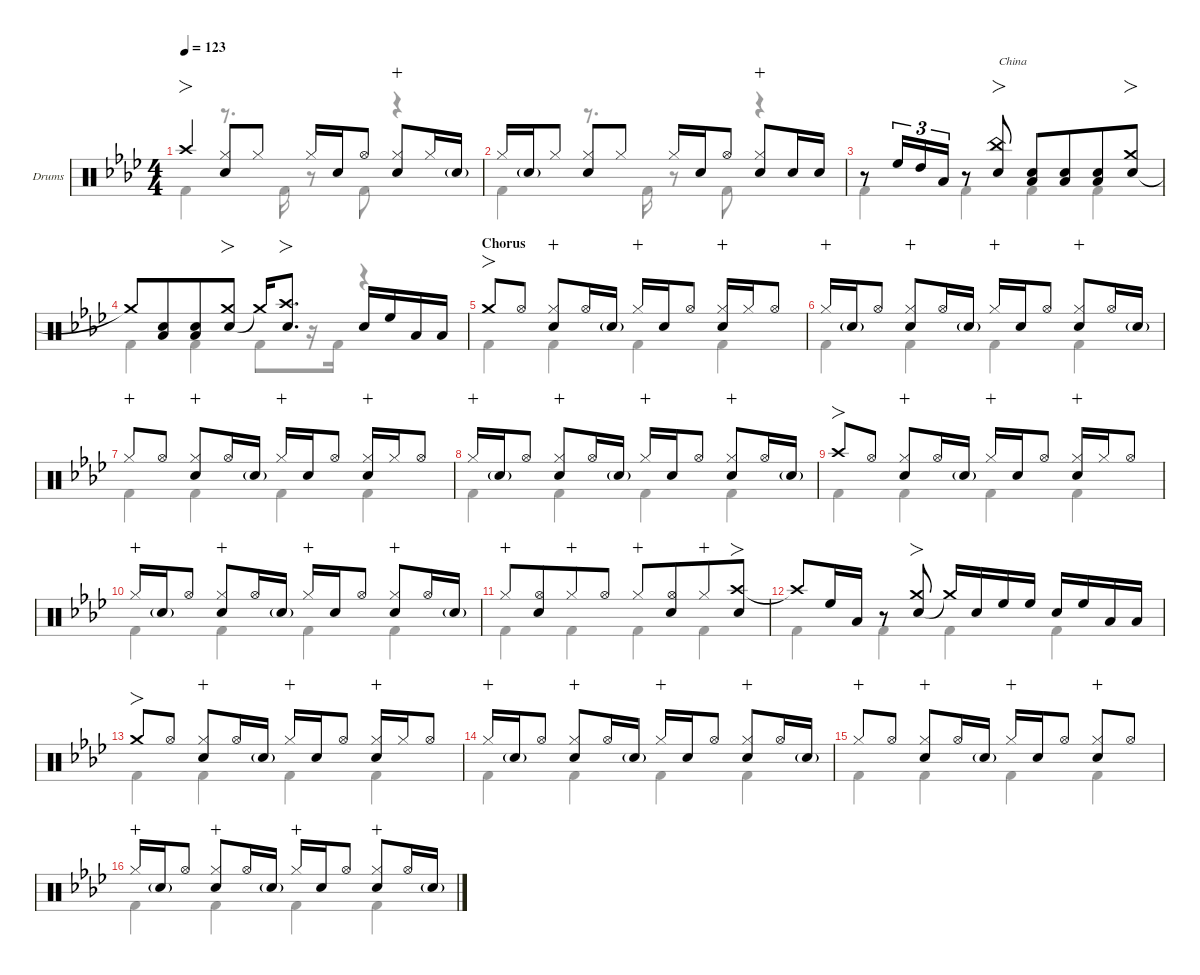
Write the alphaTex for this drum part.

\defaultSystemsLayout 4
\hideDynamics
\bracketExtendMode nobrackets
\firstSystemTrackNameOrientation horizontal
\track ("Drums" "Drums") {defaultSystemsLayout 4 instrument percussion}
\staff {score}
\articulation defaults
\voice
\ts (4 4)
\tempo 123
\clef neutral
\scale
0.265513
\ks ab "Crash high (hit)"{acc forcenatural}.4{fo dy f beam Up}
("Hi-Hat (closed)"{acc forcenatural} "Snare (hit) 2"{acc forcenatural}).8{beam Up} "Hi-Hat (closed)"{acc forcenatural}.8{dy mf beam Up} "Hi-Hat (closed)"{acc forcenatural}.16{dy f beam Up} "Snare (hit) 2"{acc forcenatural}.16{dy mf beam Up} "Hi-Hat (open)"{acc forcenatural}.8{dy f beam Up} ("Hi-Hat (closed)"{acc forcenatural} "Snare (hit) 2"{acc forcenatural}).8{wahc beam Up} "Hi-Hat (closed)"{acc forcenatural}.16{dy mf beam Up} "Snare (hit) 2"{g acc forcenatural}.16{dy mp beam Up} |
\scale
0.245566 "Hi-Hat (closed)"{acc forcenatural}.16{dy f beam Up} "Snare (hit) 2"{g acc forcenatural}.16{dy mp beam Up} "Hi-Hat (closed)"{acc forcenatural}.8{dy mf beam Up} ("Hi-Hat (closed)"{acc forcenatural} "Snare (hit) 2"{acc forcenatural}).8{dy f beam Up} "Hi-Hat (closed)"{acc forcenatural}.8{dy mf beam Up} "Hi-Hat (closed)"{acc forcenatural}.16{dy f beam Up} "Snare (hit) 2"{acc forcenatural}.16{dy mf beam Up} "Hi-Hat (open)"{acc forcenatural}.8{dy f beam Up} ("Hi-Hat (closed)"{acc forcenatural} "Snare (hit) 2"{acc forcenatural}).8{wahc beam Up} "Snare (hit) 2"{acc forcenatural}.16{dy mf beam Up} "Snare (hit) 2"{acc forcenatural}.16{beam Up} |
\scale
0.24446 r.8{beam Up} "High Floor Tom (hit)"{acc forcenatural}.16{tu (3 2) dy f beam Up} "High Tom (hit)"{acc forcenatural}.16{tu (3 2) beam Up} "Low Tom (hit)"{acc forcenatural}.16{tu (3 2) beam Up} r.8{beam Up} ("Snare (hit) 2"{acc forcenatural} "China (hit)"{acc forcenatural}).8{fo txt "China" beam Up} ("Snare (hit) 2"{acc forcenatural} "Low Tom (hit)"{acc forcenatural}).8{dy mp beam Up beam merge} ("Snare (hit) 2"{acc forcenatural} "Low Tom (hit)"{acc forcenatural}).8{beam Up beam merge} ("Snare (hit) 2"{acc forcenatural} "Low Tom (hit)"{acc forcenatural}).8{beam Up} ("Snare (hit) 2"{acc forcenatural} "Crash medium (hit)"{acc forcenatural}).8{fo dy f beam Up} |
\scale
0.244461 "Crash medium (hit)"{t acc forcenatural}.8{beam Up beam merge} ("Snare (hit) 2"{acc forcenatural} "Low Tom (hit)"{acc forcenatural}).8{beam Up beam merge} ("Snare (hit) 2"{acc forcenatural} "Low Tom (hit)"{acc forcenatural}).8{beam Up beam merge} ("Snare (hit) 2"{acc forcenatural} "Crash medium (hit)"{acc forcenatural}).8{fo beam Up} "Crash medium (hit)"{t acc forcenatural}.16{beam Up} ("Snare (hit) 2"{acc forcenatural} "Crash high (hit)"{acc forcenatural}).8{fo d beam Up} "Snare (hit) 2"{acc forcenatural}.16{beam Up} "High Floor Tom (hit)"{acc forcenatural}.16{beam Up} "Low Tom (hit)"{acc forcenatural}.16{beam Up} "Low Tom (hit)"{acc forcenatural}.16{beam Up} |
\section ("" "Chorus")
\scale
0.265513 "Crash medium (hit)"{acc forcenatural}.8{fo beam Up} "Hi-Hat (open)"{acc forcenatural}.8{beam Up} ("Snare (hit) 2"{acc forcenatural} "Hi-Hat (closed)"{acc forcenatural}).8{wahc beam Up beam merge} "Hi-Hat (open)"{acc forcenatural}.16{beam Up} "Snare (hit) 2"{g acc forcenatural}.16{dy mf beam Up} "Hi-Hat (closed)"{acc forcenatural}.16{dy mp wahc beam Up} "Snare (hit) 2"{acc forcenatural}.16{dy f beam Up} "Hi-Hat (open)"{acc forcenatural}.8{beam Up} ("Snare (hit) 2"{acc forcenatural} "Hi-Hat (closed)"{acc forcenatural}).16{wahc beam Up} "Hi-Hat (closed)"{acc forcenatural}.16{beam Up} "Hi-Hat (open)"{acc forcenatural}.8{beam Up} |
\scale
0.245566 "Hi-Hat (closed)"{acc forcenatural}.16{dy mp wahc beam Up} "Snare (hit) 2"{g acc forcenatural}.16{dy mf beam Up} "Hi-Hat (open)"{acc forcenatural}.8{dy f beam Up} ("Snare (hit) 2"{acc forcenatural} "Hi-Hat (closed)"{acc forcenatural}).8{wahc beam Up beam merge} "Hi-Hat (open)"{acc forcenatural}.16{beam Up} "Snare (hit) 2"{g acc forcenatural}.16{dy mf beam Up} "Hi-Hat (closed)"{acc forcenatural}.16{dy mp wahc beam Up} "Snare (hit) 2"{acc forcenatural}.16{dy f beam Up} "Hi-Hat (open)"{acc forcenatural}.8{beam Up} ("Snare (hit) 2"{acc forcenatural} "Hi-Hat (closed)"{acc forcenatural}).8{wahc beam Up beam merge} "Hi-Hat (open)"{acc forcenatural}.16{beam Up} "Snare (hit) 2"{g acc forcenatural}.16{dy mf beam Up} |
\scale
0.24446 "Hi-Hat (closed)"{acc forcenatural}.8{dy mp wahc beam Up beam merge} "Hi-Hat (open)"{acc forcenatural}.8{dy f beam Up beam split} ("Snare (hit) 2"{acc forcenatural} "Hi-Hat (closed)"{acc forcenatural}).8{wahc beam Up beam merge} "Hi-Hat (open)"{acc forcenatural}.16{beam Up} "Snare (hit) 2"{g acc forcenatural}.16{dy mf beam Up} "Hi-Hat (closed)"{acc forcenatural}.16{dy mp wahc beam Up} "Snare (hit) 2"{acc forcenatural}.16{dy f beam Up} "Hi-Hat (open)"{acc forcenatural}.8{beam Up} ("Snare (hit) 2"{acc forcenatural} "Hi-Hat (closed)"{acc forcenatural}).16{wahc beam Up} "Hi-Hat (closed)"{acc forcenatural}.16{beam Up} "Hi-Hat (open)"{acc forcenatural}.8{beam Up} |
\scale
0.244461 "Hi-Hat (closed)"{acc forcenatural}.16{dy mp wahc beam Up} "Snare (hit) 2"{g acc forcenatural}.16{dy mf beam Up} "Hi-Hat (open)"{acc forcenatural}.8{dy f beam Up} ("Snare (hit) 2"{acc forcenatural} "Hi-Hat (closed)"{acc forcenatural}).8{wahc beam Up beam merge} "Hi-Hat (open)"{acc forcenatural}.16{beam Up} "Snare (hit) 2"{g acc forcenatural}.16{dy mf beam Up} "Hi-Hat (closed)"{acc forcenatural}.16{dy mp wahc beam Up} "Snare (hit) 2"{acc forcenatural}.16{dy f beam Up} "Hi-Hat (open)"{acc forcenatural}.8{beam Up} ("Snare (hit) 2"{acc forcenatural} "Hi-Hat (closed)"{acc forcenatural}).8{wahc beam Up beam merge} "Hi-Hat (open)"{acc forcenatural}.16{beam Up} "Snare (hit) 2"{g acc forcenatural}.16{dy mf beam Up} |
\scale
0.265513 "Crash high (hit)"{acc forcenatural}.8{fo dy f beam Up} "Hi-Hat (open)"{acc forcenatural}.8{beam Up} ("Snare (hit) 2"{acc forcenatural} "Hi-Hat (closed)"{acc forcenatural}).8{wahc beam Up beam merge} "Hi-Hat (open)"{acc forcenatural}.16{beam Up} "Snare (hit) 2"{g acc forcenatural}.16{dy mf beam Up} "Hi-Hat (closed)"{acc forcenatural}.16{dy mp wahc beam Up} "Snare (hit) 2"{acc forcenatural}.16{dy f beam Up} "Hi-Hat (open)"{acc forcenatural}.8{beam Up} ("Snare (hit) 2"{acc forcenatural} "Hi-Hat (closed)"{acc forcenatural}).16{wahc beam Up} "Hi-Hat (closed)"{acc forcenatural}.16{beam Up} "Hi-Hat (open)"{acc forcenatural}.8{beam Up} |
\scale
0.245566 "Hi-Hat (closed)"{acc forcenatural}.16{dy mp wahc beam Up} "Snare (hit) 2"{g acc forcenatural}.16{dy mf beam Up} "Hi-Hat (open)"{acc forcenatural}.8{dy f beam Up} ("Snare (hit) 2"{acc forcenatural} "Hi-Hat (closed)"{acc forcenatural}).8{wahc beam Up beam merge} "Hi-Hat (open)"{acc forcenatural}.16{beam Up} "Snare (hit) 2"{g acc forcenatural}.16{dy mf beam Up} "Hi-Hat (closed)"{acc forcenatural}.16{dy mp wahc beam Up} "Snare (hit) 2"{acc forcenatural}.16{dy f beam Up} "Hi-Hat (open)"{acc forcenatural}.8{beam Up} ("Snare (hit) 2"{acc forcenatural} "Hi-Hat (closed)"{acc forcenatural}).8{wahc beam Up beam merge} "Hi-Hat (open)"{acc forcenatural}.16{beam Up} "Snare (hit) 2"{g acc forcenatural}.16{dy mf beam Up} |
\scale
0.24446 "Hi-Hat (closed)"{acc forcenatural}.8{dy mp wahc beam Up beam merge} ("Hi-Hat (open)"{acc forcenatural} "Snare (hit) 2"{acc forcenatural}).8{dy f beam Up beam merge} "Hi-Hat (closed)"{acc forcenatural}.8{dy mp wahc beam Up beam merge} "Hi-Hat (open)"{acc forcenatural}.8{dy f beam Up} "Hi-Hat (closed)"{acc forcenatural}.8{dy mp wahc beam Up beam merge} ("Hi-Hat (open)"{acc forcenatural} "Snare (hit) 2"{acc forcenatural}).8{dy f beam Up beam merge} "Hi-Hat (closed)"{acc forcenatural}.8{dy mp wahc beam Up beam merge} ("Crash high (hit)"{acc forcenatural} "Snare (hit) 2"{acc forcenatural}).8{fo dy f beam Up} |
\scale
0.244461 "Crash high (hit)"{t acc forcenatural}.8{beam Up} "High Floor Tom (hit)"{acc forcenatural}.16{dy mf beam Up} "Low Tom (hit)"{acc forcenatural}.16{beam Up} r.8{beam Up} ("Snare (hit) 2"{acc forcenatural} "Crash medium (hit)"{acc forcenatural}).8{fo dy f beam Up} "Crash medium (hit)"{t acc forcenatural}.16{beam Up} "Snare (hit) 2"{acc forcenatural}.16{beam Up} "High Floor Tom (hit)"{acc forcenatural}.16{beam Up} "High Floor Tom (hit)"{acc forcenatural}.16{beam Up} "Snare (hit) 2"{acc forcenatural}.16{beam Up} "High Floor Tom (hit)"{acc forcenatural}.16{beam Up} "Low Tom (hit)"{acc forcenatural}.16{beam Up} "Low Tom (hit)"{acc forcenatural}.16{beam Up} |
\scale
0.265513 "Crash medium (hit)"{acc forcenatural}.8{fo beam Up} "Hi-Hat (open)"{acc forcenatural}.8{beam Up} ("Snare (hit) 2"{acc forcenatural} "Hi-Hat (closed)"{acc forcenatural}).8{wahc beam Up beam merge} "Hi-Hat (open)"{acc forcenatural}.16{beam Up} "Snare (hit) 2"{g acc forcenatural}.16{dy mf beam Up} "Hi-Hat (closed)"{acc forcenatural}.16{dy mp wahc beam Up} "Snare (hit) 2"{acc forcenatural}.16{dy f beam Up} "Hi-Hat (open)"{acc forcenatural}.8{beam Up} ("Snare (hit) 2"{acc forcenatural} "Hi-Hat (closed)"{acc forcenatural}).16{wahc beam Up} "Hi-Hat (closed)"{acc forcenatural}.16{beam Up} "Hi-Hat (open)"{acc forcenatural}.8{beam Up} |
\scale
0.245566 "Hi-Hat (closed)"{acc forcenatural}.16{dy mp wahc beam Up} "Snare (hit) 2"{g acc forcenatural}.16{dy mf beam Up} "Hi-Hat (open)"{acc forcenatural}.8{dy f beam Up} ("Snare (hit) 2"{acc forcenatural} "Hi-Hat (closed)"{acc forcenatural}).8{wahc beam Up beam merge} "Hi-Hat (open)"{acc forcenatural}.16{beam Up} "Snare (hit) 2"{g acc forcenatural}.16{dy mf beam Up} "Hi-Hat (closed)"{acc forcenatural}.16{dy mp wahc beam Up} "Snare (hit) 2"{acc forcenatural}.16{dy f beam Up} "Hi-Hat (open)"{acc forcenatural}.8{beam Up} ("Snare (hit) 2"{acc forcenatural} "Hi-Hat (closed)"{acc forcenatural}).8{wahc beam Up beam merge} "Hi-Hat (open)"{acc forcenatural}.16{beam Up} "Snare (hit) 2"{g acc forcenatural}.16{dy mf beam Up} |
\scale
0.24446 "Hi-Hat (closed)"{acc forcenatural}.8{dy mp wahc beam Up beam merge} "Hi-Hat (open)"{acc forcenatural}.8{dy f beam Up beam split} ("Snare (hit) 2"{acc forcenatural} "Hi-Hat (closed)"{acc forcenatural}).8{wahc beam Up beam merge} "Hi-Hat (open)"{acc forcenatural}.16{beam Up} "Snare (hit) 2"{g acc forcenatural}.16{dy mf beam Up} "Hi-Hat (closed)"{acc forcenatural}.16{dy mp wahc beam Up} "Snare (hit) 2"{acc forcenatural}.16{dy f beam Up} "Hi-Hat (open)"{acc forcenatural}.8{beam Up} ("Snare (hit) 2"{acc forcenatural} "Hi-Hat (closed)"{acc forcenatural}).8{wahc beam Up beam merge} "Hi-Hat (open)"{acc forcenatural}.8{beam Up} |
\scale
0.244461 "Hi-Hat (closed)"{acc forcenatural}.16{dy mp wahc beam Up} "Snare (hit) 2"{g acc forcenatural}.16{dy mf beam Up} "Hi-Hat (open)"{acc forcenatural}.8{dy f beam Up} ("Snare (hit) 2"{acc forcenatural} "Hi-Hat (closed)"{acc forcenatural}).8{wahc beam Up beam merge} "Hi-Hat (open)"{acc forcenatural}.16{beam Up} "Snare (hit) 2"{g acc forcenatural}.16{dy mf beam Up} "Hi-Hat (closed)"{acc forcenatural}.16{dy mp wahc beam Up} "Snare (hit) 2"{acc forcenatural}.16{dy f beam Up} "Hi-Hat (open)"{acc forcenatural}.8{beam Up} ("Snare (hit) 2"{acc forcenatural} "Hi-Hat (closed)"{acc forcenatural}).8{wahc beam Up beam merge} "Hi-Hat (open)"{acc forcenatural}.16{beam Up} "Snare (hit) 2"{g acc forcenatural}.16{dy mf beam Up}
\voice
\clef neutral
\ottava regular
\simile none
\scale
0.265513
\ks ab "Kick (hit) 2"{acc forcenatural}.4{dy f beam Down}
r.8{d beam Down} "Kick (hit) 2"{acc forcenatural}.16{beam Down} r.8{beam Down} "Kick (hit) 2"{acc forcenatural}.8{beam Down} r.4{beam Down} |
\scale
0.245566 "Kick (hit) 2"{acc forcenatural}.4{beam Down} r.8{d beam Down} "Kick (hit) 2"{acc forcenatural}.16{beam Down} r.8{beam Down} "Kick (hit) 2"{acc forcenatural}.8{beam Down} r.4{beam Down} |
\scale
0.24446 "Kick (hit) 2"{acc forcenatural}.4{beam Down} "Kick (hit) 2"{acc forcenatural}.4{beam Down} "Kick (hit) 2"{acc forcenatural}.4{beam Down} "Kick (hit) 2"{acc forcenatural}.4{beam Down} |
\scale
0.244461 "Kick (hit) 2"{acc forcenatural}.4{beam Down} "Kick (hit) 2"{acc forcenatural}.4{beam Down} "Kick (hit) 2"{acc forcenatural}.8{beam Down} r.16{beam Down} "Kick (hit) 2"{acc forcenatural}.16{beam Down} r.4{beam Down} |
\scale
0.265513 "Kick (hit) 2"{acc forcenatural}.4{beam Down} "Kick (hit) 2"{acc forcenatural}.4{beam Down} "Kick (hit) 2"{acc forcenatural}.4{beam Down} "Kick (hit) 2"{acc forcenatural}.4{beam Down} |
\scale
0.245566 "Kick (hit) 2"{acc forcenatural}.4{beam Down} "Kick (hit) 2"{acc forcenatural}.4{beam Down} "Kick (hit) 2"{acc forcenatural}.4{beam Down} "Kick (hit) 2"{acc forcenatural}.4{beam Down} |
\scale
0.24446 "Kick (hit) 2"{acc forcenatural}.4{beam Down} "Kick (hit) 2"{acc forcenatural}.4{beam Down} "Kick (hit) 2"{acc forcenatural}.4{beam Down} "Kick (hit) 2"{acc forcenatural}.4{beam Down} |
\scale
0.244461 "Kick (hit) 2"{acc forcenatural}.4{beam Down} "Kick (hit) 2"{acc forcenatural}.4{beam Down} "Kick (hit) 2"{acc forcenatural}.4{beam Down} "Kick (hit) 2"{acc forcenatural}.4{beam Down} |
\scale
0.265513 "Kick (hit) 2"{acc forcenatural}.4{beam Down} "Kick (hit) 2"{acc forcenatural}.4{beam Down} "Kick (hit) 2"{acc forcenatural}.4{beam Down} "Kick (hit) 2"{acc forcenatural}.4{beam Down} |
\scale
0.245566 "Kick (hit) 2"{acc forcenatural}.4{beam Down} "Kick (hit) 2"{acc forcenatural}.4{beam Down} "Kick (hit) 2"{acc forcenatural}.4{beam Down} "Kick (hit) 2"{acc forcenatural}.4{beam Down} |
\scale
0.24446 "Kick (hit) 2"{acc forcenatural}.4{beam Down} "Kick (hit) 2"{acc forcenatural}.4{beam Down} "Kick (hit) 2"{acc forcenatural}.4{beam Down} "Kick (hit) 2"{acc forcenatural}.4{beam Down} |
\scale
0.244461 "Kick (hit) 2"{acc forcenatural}.4{beam Down} "Kick (hit) 2"{acc forcenatural}.4{beam Down} "Kick (hit) 2"{acc forcenatural}.4{beam Down} "Kick (hit) 2"{acc forcenatural}.4{beam Down} |
\scale
0.265513 "Kick (hit) 2"{acc forcenatural}.4{beam Down} "Kick (hit) 2"{acc forcenatural}.4{beam Down} "Kick (hit) 2"{acc forcenatural}.4{beam Down} "Kick (hit) 2"{acc forcenatural}.4{beam Down} |
\scale
0.245566 "Kick (hit) 2"{acc forcenatural}.4{beam Down} "Kick (hit) 2"{acc forcenatural}.4{beam Down} "Kick (hit) 2"{acc forcenatural}.4{beam Down} "Kick (hit) 2"{acc forcenatural}.4{beam Down} |
\scale
0.24446 "Kick (hit) 2"{acc forcenatural}.4{beam Down} "Kick (hit) 2"{acc forcenatural}.4{beam Down} "Kick (hit) 2"{acc forcenatural}.4{beam Down} "Kick (hit) 2"{acc forcenatural}.4{beam Down} |
\scale
0.244461 "Kick (hit) 2"{acc forcenatural}.4{beam Down} "Kick (hit) 2"{acc forcenatural}.4{beam Down} "Kick (hit) 2"{acc forcenatural}.4{beam Down} "Kick (hit) 2"{acc forcenatural}.4{beam Down}
